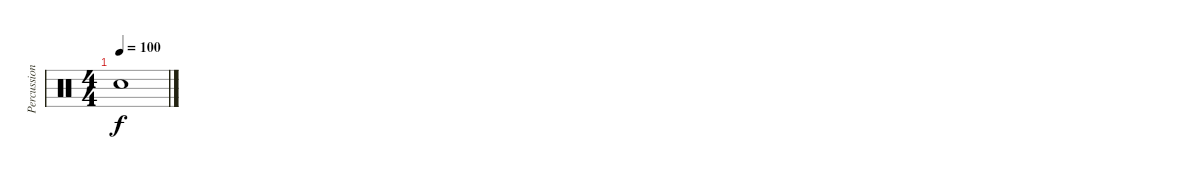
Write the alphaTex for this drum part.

\track ("Percussion" "Percussion") {instrument percussion}
\staff {score}
\articulation defaults
\ts (4 4)
\tempo 100
\clef neutral
\ks c "Snare (hit)"{t}.1{dy f}
